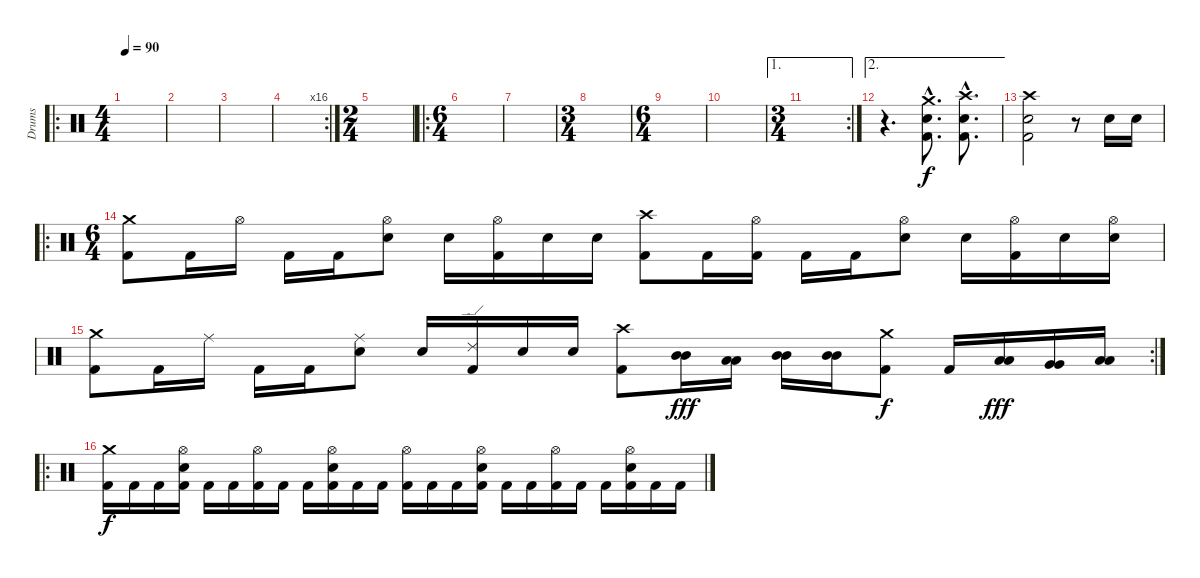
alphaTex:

\track ("Drums" "Drums") {instrument percussion}
\staff {score}
\articulation defaults
\ro
\ts (4 4)
\tempo 90
\tempo 85
\tempo 90
\clef neutral
\ks c
|
|
|
\rc 16
|
\ts (2 4)
|
\ro
\ts (6 4)
|
|
\ts (3 4)
|
\ts (6 4)
|
|
\ae 1
\rc 2
\ts (3 4)
|
\ae 2
r.4{d} ("Crash medium (hit)"{hac} "Electric Snare (hit)"{hac} "Kick (hit) 2"{hac}).8{d} ("Crash high (hit)"{hac} "Electric Snare (hit)"{hac} "Kick (hit) 2"{hac}).8{d} |
("Crash high (hit)" "Electric Snare (hit)" "Kick (hit) 2").2 r.8 "Electric Snare (hit)".16 "Electric Snare (hit)".16 |
\ro
\ts (6 4)
("Crash medium (hit)" "Kick (hit) 2").8 "Kick (hit) 2".16 "Hi-Hat (open)".16 "Kick (hit) 2".16 "Kick (hit) 2".16 ("Hi-Hat (open)" "Electric Snare (hit)").8 "Electric Snare (hit)".16 ("Hi-Hat (open)" "Kick (hit) 2").16 "Electric Snare (hit)".16 "Electric Snare (hit)".16 ("Crash high (hit)" "Kick (hit) 2").8 "Kick (hit) 2".16 ("Hi-Hat (open)" "Kick (hit) 2").16 "Kick (hit) 2".16 "Kick (hit) 2".16 ("Hi-Hat (open)" "Electric Snare (hit)").8 "Electric Snare (hit)".16 ("Hi-Hat (open)" "Kick (hit) 2").16 "Electric Snare (hit)".16 ("Hi-Hat (open)" "Electric Snare (hit)").16 |
\rc 2
("Crash medium (hit)" "Kick (hit) 2").8 "Kick (hit) 2".16 "Ride (middle)".16 "Kick (hit) 2".16 "Kick (hit) 2".16 ("Ride (middle)" "Electric Snare (hit)").8 "Electric Snare (hit)".16 ("Ride (edge) 2" "Kick (hit) 2").16 "Electric Snare (hit)".16 "Electric Snare (hit)".16 ("Crash high (hit)" "Kick (hit) 2").8 ("Mid Tom (hit)" "Mid Tom (hit)").16{dy fff} ("Low Tom (hit)" "Low Tom (hit)").16 ("Mid Tom (hit)" "Mid Tom (hit)").16 ("Mid Tom (hit)" "Mid Tom (hit)").16 ("Crash medium (hit)" "Kick (hit) 2").8{dy f} "Kick (hit) 2".16 ("Low Tom (hit)" "Low Tom (hit)").16{dy fff} ("Very Low Tom (hit)" "Very Low Tom (hit)").16 ("Low Floor Tom (hit)" "Low Floor Tom (hit)").16 |
\ro
("Crash medium (hit)" "Kick (hit) 2").16{dy f} "Kick (hit) 2".16 "Kick (hit) 2".16 ("Hi-Hat (open)" "Electric Snare (hit)" "Kick (hit) 2").16 "Kick (hit) 2".16 "Kick (hit) 2".16 ("Hi-Hat (open)" "Kick (hit) 2").16 "Kick (hit) 2".16 "Kick (hit) 2".16 ("Hi-Hat (open)" "Electric Snare (hit)" "Kick (hit) 2").16 "Kick (hit) 2".16 "Kick (hit) 2".16 ("Hi-Hat (open)" "Kick (hit) 2").16 "Kick (hit) 2".16 "Kick (hit) 2".16 ("Hi-Hat (open)" "Electric Snare (hit)" "Kick (hit) 2").16 "Kick (hit) 2".16 "Kick (hit) 2".16 ("Hi-Hat (open)" "Kick (hit) 2").16 "Kick (hit) 2".16 "Kick (hit) 2".16 ("Hi-Hat (open)" "Electric Snare (hit)" "Kick (hit) 2").16 "Kick (hit) 2".16 "Kick (hit) 2".16
